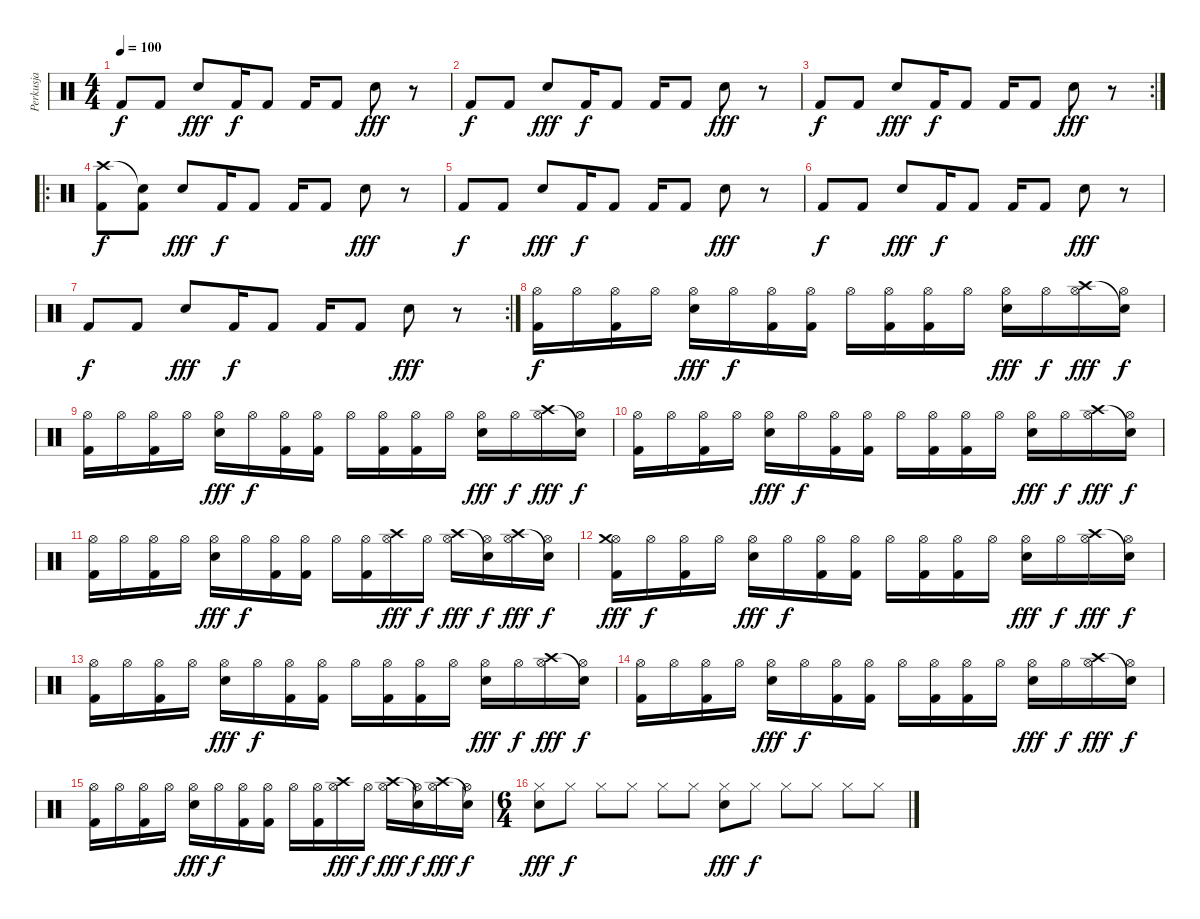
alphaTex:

\track ("Perkusja" "Perkusja") {instrument percussion}
\staff {score}
\articulation defaults
\ts (4 4)
\tempo 100
\clef neutral
\ks c "Kick (hit) 2".8{dy f} "Kick (hit) 2".8 "Snare (hit) 2".8{dy fff} "Kick (hit) 2".16{dy f} "Kick (hit) 2".8 "Kick (hit) 2".16 "Kick (hit) 2".8 "Snare (hit) 2".8{dy fff}
r.8 |
"Kick (hit) 2".8{dy f} "Kick (hit) 2".8 "Snare (hit) 2".8{dy fff} "Kick (hit) 2".16{dy f} "Kick (hit) 2".8 "Kick (hit) 2".16 "Kick (hit) 2".8 "Snare (hit) 2".8{dy fff} r.8 |
\rc 2 "Kick (hit) 2".8{dy f} "Kick (hit) 2".8 "Snare (hit) 2".8{dy fff} "Kick (hit) 2".16{dy f} "Kick (hit) 2".8 "Kick (hit) 2".16 "Kick (hit) 2".8 "Snare (hit) 2".8{dy fff}
r.8 |
\ro
("Kick (hit) 2" "Crash high (hit)").8{dy f} ("Kick (hit) 2" "Snare (hit)"{t}).8 "Snare (hit) 2".8{dy fff} "Kick (hit) 2".16{dy f} "Kick (hit) 2".8 "Kick (hit) 2".16 "Kick (hit) 2".8 "Snare (hit) 2".8{dy fff} r.8 |
"Kick (hit) 2".8{dy f} "Kick (hit) 2".8 "Snare (hit) 2".8{dy fff} "Kick (hit) 2".16{dy f} "Kick (hit) 2".8 "Kick (hit) 2".16 "Kick (hit) 2".8 "Snare (hit) 2".8{dy fff} r.8 |
"Kick (hit) 2".8{dy f} "Kick (hit) 2".8 "Snare (hit) 2".8{dy fff} "Kick (hit) 2".16{dy f} "Kick (hit) 2".8 "Kick (hit) 2".16 "Kick (hit) 2".8 "Snare (hit) 2".8{dy fff} r.8 |
\rc 2 "Kick (hit) 2".8{dy f} "Kick (hit) 2".8 "Snare (hit) 2".8{dy fff} "Kick (hit) 2".16{dy f} "Kick (hit) 2".8 "Kick (hit) 2".16 "Kick (hit) 2".8 "Snare (hit) 2".8{dy fff}
r.8 |
("Hi-Hat (open)" "Kick (hit) 2").16{dy f} "Hi-Hat (open)".16 ("Hi-Hat (open)" "Kick (hit) 2").16 "Hi-Hat (open)".16 ("Hi-Hat (open)" "Snare (hit) 2").16{dy fff} "Hi-Hat (open)".16{dy f} ("Hi-Hat (open)" "Kick (hit) 2").16 ("Hi-Hat (open)" "Kick (hit) 2").16 "Hi-Hat (open)".16 ("Hi-Hat (open)" "Kick (hit) 2").16 ("Hi-Hat (open)" "Kick (hit) 2").16 "Hi-Hat (open)".16 ("Hi-Hat (open)" "Snare (hit) 2").16{dy fff} "Hi-Hat (open)".16{dy f} ("Hi-Hat (open)" "Crash high (hit)").16{dy fff} ("Hi-Hat (open)" "Snare (hit)"{t}).16{dy f} |
("Hi-Hat (open)" "Kick (hit) 2").16 "Hi-Hat (open)".16 ("Hi-Hat (open)" "Kick (hit) 2").16 "Hi-Hat (open)".16 ("Hi-Hat (open)" "Snare (hit) 2").16{dy fff} "Hi-Hat (open)".16{dy f} ("Hi-Hat (open)" "Kick (hit) 2").16 ("Hi-Hat (open)" "Kick (hit) 2").16 "Hi-Hat (open)".16 ("Hi-Hat (open)" "Kick (hit) 2").16 ("Hi-Hat (open)" "Kick (hit) 2").16 "Hi-Hat (open)".16 ("Hi-Hat (open)" "Snare (hit) 2").16{dy fff} "Hi-Hat (open)".16{dy f} ("Hi-Hat (open)" "Crash high (hit)").16{dy fff} ("Hi-Hat (open)" "Snare (hit)"{t}).16{dy f} |
("Hi-Hat (open)" "Kick (hit) 2").16 "Hi-Hat (open)".16 ("Hi-Hat (open)" "Kick (hit) 2").16 "Hi-Hat (open)".16 ("Hi-Hat (open)" "Snare (hit) 2").16{dy fff} "Hi-Hat (open)".16{dy f} ("Hi-Hat (open)" "Kick (hit) 2").16 ("Hi-Hat (open)" "Kick (hit) 2").16 "Hi-Hat (open)".16 ("Hi-Hat (open)" "Kick (hit) 2").16 ("Hi-Hat (open)" "Kick (hit) 2").16 "Hi-Hat (open)".16 ("Hi-Hat (open)" "Snare (hit) 2").16{dy fff} "Hi-Hat (open)".16{dy f} ("Hi-Hat (open)" "Crash high (hit)").16{dy fff} ("Hi-Hat (open)" "Snare (hit)"{t}).16{dy f} |
("Hi-Hat (open)" "Kick (hit) 2").16 "Hi-Hat (open)".16 ("Hi-Hat (open)" "Kick (hit) 2").16 "Hi-Hat (open)".16 ("Hi-Hat (open)" "Snare (hit) 2").16{dy fff} "Hi-Hat (open)".16{dy f} ("Hi-Hat (open)" "Kick (hit) 2").16 ("Hi-Hat (open)" "Kick (hit) 2").16 "Hi-Hat (open)".16 ("Hi-Hat (open)" "Kick (hit) 2").16 ("Hi-Hat (open)" "Crash high (hit)").16{dy fff} "Hi-Hat (open)".16{dy f} ("Hi-Hat (open)" "Crash high (hit)").16{dy fff} ("Hi-Hat (open)" "Snare (hit)"{t}).16{dy f} ("Hi-Hat (open)" "Crash high (hit)").16{dy fff} ("Hi-Hat (open)" "Snare (hit)"{t}).16{dy f} |
("Hi-Hat (open)" "Kick (hit) 2" "Crash medium (hit)").16{dy fff} "Hi-Hat (open)".16{dy f} ("Hi-Hat (open)" "Kick (hit) 2").16 "Hi-Hat (open)".16 ("Hi-Hat (open)" "Snare (hit) 2").16{dy fff} "Hi-Hat (open)".16{dy f} ("Hi-Hat (open)" "Kick (hit) 2").16 ("Hi-Hat (open)" "Kick (hit) 2").16 "Hi-Hat (open)".16 ("Hi-Hat (open)" "Kick (hit) 2").16 ("Hi-Hat (open)" "Kick (hit) 2").16 "Hi-Hat (open)".16 ("Hi-Hat (open)" "Snare (hit) 2").16{dy fff} "Hi-Hat (open)".16{dy f} ("Hi-Hat (open)" "Crash high (hit)").16{dy fff} ("Hi-Hat (open)" "Snare (hit)"{t}).16{dy f} |
("Hi-Hat (open)" "Kick (hit) 2").16 "Hi-Hat (open)".16 ("Hi-Hat (open)" "Kick (hit) 2").16 "Hi-Hat (open)".16 ("Hi-Hat (open)" "Snare (hit) 2").16{dy fff} "Hi-Hat (open)".16{dy f} ("Hi-Hat (open)" "Kick (hit) 2").16 ("Hi-Hat (open)" "Kick (hit) 2").16 "Hi-Hat (open)".16 ("Hi-Hat (open)" "Kick (hit) 2").16 ("Hi-Hat (open)" "Kick (hit) 2").16 "Hi-Hat (open)".16 ("Hi-Hat (open)" "Snare (hit) 2").16{dy fff} "Hi-Hat (open)".16{dy f} ("Hi-Hat (open)" "Crash high (hit)").16{dy fff} ("Hi-Hat (open)" "Snare (hit)"{t}).16{dy f} |
("Hi-Hat (open)" "Kick (hit) 2").16 "Hi-Hat (open)".16 ("Hi-Hat (open)" "Kick (hit) 2").16 "Hi-Hat (open)".16 ("Hi-Hat (open)" "Snare (hit) 2").16{dy fff} "Hi-Hat (open)".16{dy f} ("Hi-Hat (open)" "Kick (hit) 2").16 ("Hi-Hat (open)" "Kick (hit) 2").16 "Hi-Hat (open)".16 ("Hi-Hat (open)" "Kick (hit) 2").16 ("Hi-Hat (open)" "Kick (hit) 2").16 "Hi-Hat (open)".16 ("Hi-Hat (open)" "Snare (hit) 2").16{dy fff} "Hi-Hat (open)".16{dy f} ("Hi-Hat (open)" "Crash high (hit)").16{dy fff} ("Hi-Hat (open)" "Snare (hit)"{t}).16{dy f} |
("Hi-Hat (open)" "Kick (hit) 2").16 "Hi-Hat (open)".16 ("Hi-Hat (open)" "Kick (hit) 2").16 "Hi-Hat (open)".16 ("Hi-Hat (open)" "Snare (hit) 2").16{dy fff} "Hi-Hat (open)".16{dy f} ("Hi-Hat (open)" "Kick (hit) 2").16 ("Hi-Hat (open)" "Kick (hit) 2").16 "Hi-Hat (open)".16 ("Hi-Hat (open)" "Kick (hit) 2").16 ("Hi-Hat (open)" "Crash high (hit)").16{dy fff} "Hi-Hat (open)".16{dy f} ("Hi-Hat (open)" "Crash high (hit)").16{dy fff} ("Hi-Hat (open)" "Snare (hit)"{t}).16{dy f} ("Hi-Hat (open)" "Crash high (hit)").16{dy fff} ("Hi-Hat (open)" "Snare (hit)"{t}).16{dy f} |
\ts (6 4)
("Hi-Hat (closed)" "Snare (hit) 2").8{dy fff} "Hi-Hat (closed)".8{dy f} "Hi-Hat (closed)".8 "Hi-Hat (closed)".8 "Hi-Hat (closed)".8 "Hi-Hat (closed)".8 ("Hi-Hat (closed)" "Snare (hit) 2").8{dy fff} "Hi-Hat (closed)".8{dy f} "Hi-Hat (closed)".8 "Hi-Hat (closed)".8 "Hi-Hat (closed)".8 "Hi-Hat (closed)".8
